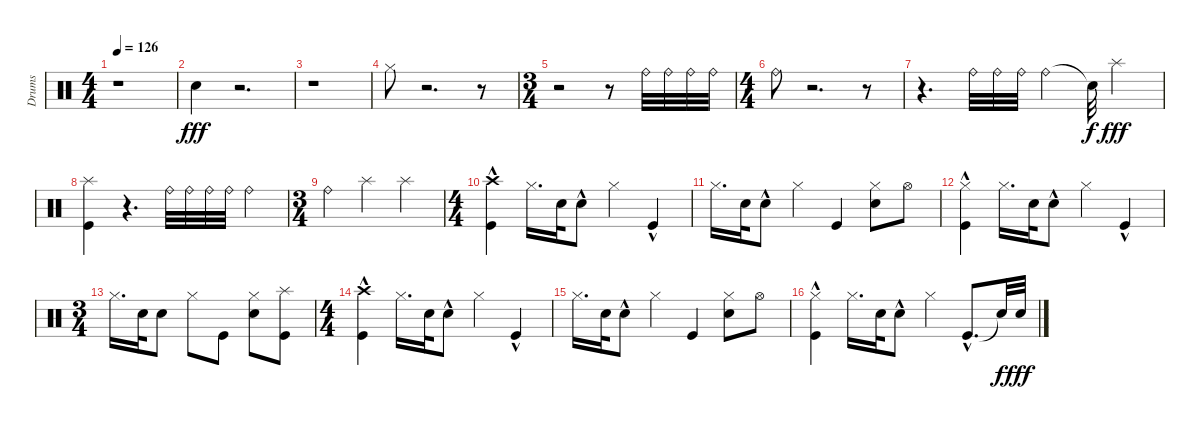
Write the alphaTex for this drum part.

\track ("Drums" "Drums") {instrument percussion}
\staff {score}
\articulation defaults
\ts (4 4)
\tempo 126
\clef neutral
\ks c
r.1{dy fff} |
"Snare (hit) 2".4 r.2{d} |
r.1 |
"Hi-Hat (closed)".8 r.2{d} r.8 |
\ts (3 4)
r.2 r.8 "Ride (bell)".32 "Ride (bell)".32 "Ride (bell)".32 "Ride (bell)".32 |
\ts (4 4)
"Ride (bell)".8 r.2{d} r.8 |
r.4{d} "Ride (bell)".32 "Ride (bell)".32 "Ride (bell)".32 "Ride (bell)".4 "Snare (hit)"{t}.32{dy f} "Splash (hit)".4{dy fff} |
("Kick (hit)" "Splash (hit)").4 r.4{d} "Ride (bell)".32 "Ride (bell)".32 "Ride (bell)".32 "Ride (bell)".32 "Ride (bell)".4 |
\ts (3 4)
"Ride (bell)".4 "Splash (hit)".4 "Splash (hit)".4 |
\ts (4 4)
("Kick (hit)"{hac} "Crash high (hit)").4 "Hi-Hat (closed)".16{d} "Snare (hit) 2".32 "Snare (hit) 2"{hac}.8 "Hi-Hat (closed)".4 "Kick (hit)"{hac}.4 |
"Hi-Hat (closed)".16{d} "Snare (hit) 2".32 "Snare (hit) 2"{hac}.8 "Hi-Hat (closed)".4 "Kick (hit)".4 ("Snare (hit) 2" "Hi-Hat (closed)").8 "Hi-Hat (open)".8 |
("Kick (hit)"{hac} "Hi-Hat (closed)").4 "Hi-Hat (closed)".16{d} "Snare (hit) 2".32 "Snare (hit) 2"{hac}.8 "Hi-Hat (closed)".4 "Kick (hit)"{hac}.4 |
\ts (3 4)
"Hi-Hat (closed)".16{d} "Snare (hit) 2".32 "Snare (hit) 2".8 "Hi-Hat (closed)".8 "Kick (hit)".8 ("Snare (hit) 2" "Hi-Hat (closed)").8 ("Kick (hit)" "Splash (hit)").8 |
\ts (4 4)
("Kick (hit)"{hac} "Crash high (hit)").4 "Hi-Hat (closed)".16{d} "Snare (hit) 2".32 "Snare (hit) 2"{hac}.8 "Hi-Hat (closed)".4 "Kick (hit)"{hac}.4 |
"Hi-Hat (closed)".16{d} "Snare (hit) 2".32 "Snare (hit) 2"{hac}.8 "Hi-Hat (closed)".4 "Kick (hit)".4 ("Snare (hit) 2" "Hi-Hat (closed)").8 "Hi-Hat (open)".8 |
("Kick (hit)"{hac} "Hi-Hat (closed)").4 "Hi-Hat (closed)".16{d} "Snare (hit) 2".32 "Snare (hit) 2"{hac}.8 "Hi-Hat (closed)".4 "Kick (hit)"{hac}.8{d} "Snare (hit)"{t}.32{dy f} "Snare (hit) 2".32{dy fff}
